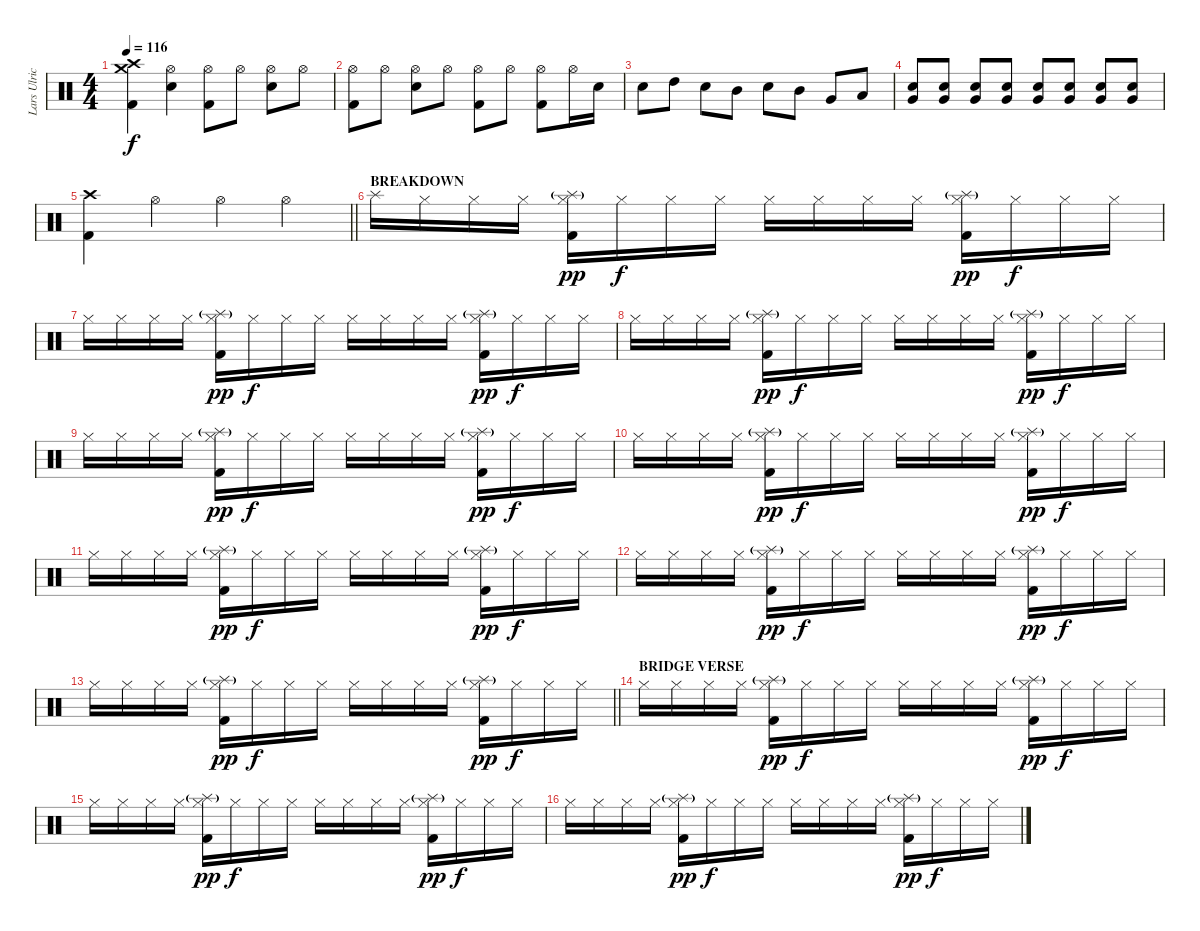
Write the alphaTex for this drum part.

\track ("Lars Ulrich - drums" "Lars Ulric") {instrument percussion}
\staff {score}
\articulation defaults
\ts (4 4)
\tempo 116
\clef neutral
\ks c
("Crash high (hit)" "Crash medium (hit)" "Kick (hit) 2").4{dy f} ("Hi-Hat (open)" "Snare (hit) 2").4 ("Hi-Hat (open)" "Kick (hit) 2").8 "Hi-Hat (open)".8 ("Hi-Hat (open)" "Snare (hit) 2").8 "Hi-Hat (open)".8 |
("Hi-Hat (open)" "Kick (hit) 2").8 "Hi-Hat (open)".8 ("Hi-Hat (open)" "Snare (hit) 2").8 "Hi-Hat (open)".8 ("Hi-Hat (open)" "Kick (hit) 2").8 "Hi-Hat (open)".8 ("Hi-Hat (open)" "Kick (hit) 2").8 "Hi-Hat (open)".16 "Snare (hit) 2".16 |
"Snare (hit) 2".8 "High Tom (hit)".8 "Snare (hit) 2".8 "Mid Tom (hit)".8 "Snare (hit) 2".8 "Mid Tom (hit)".8 "Very Low Tom (hit)".8 "Low Floor Tom (hit)".8 |
("Very Low Tom (hit)" "Snare (hit) 2").8 ("Very Low Tom (hit)" "Snare (hit) 2").8 ("Very Low Tom (hit)" "Snare (hit) 2").8 ("Very Low Tom (hit)" "Snare (hit) 2").8 ("Very Low Tom (hit)" "Snare (hit) 2").8 ("Very Low Tom (hit)" "Snare (hit) 2").8 ("Very Low Tom (hit)" "Snare (hit) 2").8 ("Very Low Tom (hit)" "Snare (hit) 2").8 |
\barLineRight lightlight
("Crash high (hit)" "Kick (hit) 2").4 "Hi-Hat (open)".4 "Hi-Hat (open)".4 "Hi-Hat (open)".4 |
\section ("" "BREAKDOWN")
"Splash (hit)".16 "Hi-Hat (closed)".16 "Hi-Hat (closed)".16 "Hi-Hat (closed)".16 ("Splash (hit)"{g} "Hi-Hat (closed)" "Kick (hit) 2").16{dy pp} "Hi-Hat (closed)".16{dy f} "Hi-Hat (closed)".16 "Hi-Hat (closed)".16 "Hi-Hat (closed)".16 "Hi-Hat (closed)".16 "Hi-Hat (closed)".16 "Hi-Hat (closed)".16 ("Splash (hit)"{g} "Hi-Hat (closed)" "Kick (hit) 2").16{dy pp} "Hi-Hat (closed)".16{dy f} "Hi-Hat (closed)".16 "Hi-Hat (closed)".16 |
"Hi-Hat (closed)".16 "Hi-Hat (closed)".16 "Hi-Hat (closed)".16 "Hi-Hat (closed)".16 ("Splash (hit)"{g} "Hi-Hat (closed)" "Kick (hit) 2").16{dy pp} "Hi-Hat (closed)".16{dy f} "Hi-Hat (closed)".16 "Hi-Hat (closed)".16 "Hi-Hat (closed)".16 "Hi-Hat (closed)".16 "Hi-Hat (closed)".16 "Hi-Hat (closed)".16 ("Splash (hit)"{g} "Hi-Hat (closed)" "Kick (hit) 2").16{dy pp} "Hi-Hat (closed)".16{dy f} "Hi-Hat (closed)".16 "Hi-Hat (closed)".16 |
"Hi-Hat (closed)".16 "Hi-Hat (closed)".16 "Hi-Hat (closed)".16 "Hi-Hat (closed)".16 ("Splash (hit)"{g} "Hi-Hat (closed)" "Kick (hit) 2").16{dy pp} "Hi-Hat (closed)".16{dy f} "Hi-Hat (closed)".16 "Hi-Hat (closed)".16 "Hi-Hat (closed)".16 "Hi-Hat (closed)".16 "Hi-Hat (closed)".16 "Hi-Hat (closed)".16 ("Splash (hit)"{g} "Hi-Hat (closed)" "Kick (hit) 2").16{dy pp} "Hi-Hat (closed)".16{dy f} "Hi-Hat (closed)".16 "Hi-Hat (closed)".16 |
"Hi-Hat (closed)".16 "Hi-Hat (closed)".16 "Hi-Hat (closed)".16 "Hi-Hat (closed)".16 ("Splash (hit)"{g} "Hi-Hat (closed)" "Kick (hit) 2").16{dy pp} "Hi-Hat (closed)".16{dy f} "Hi-Hat (closed)".16 "Hi-Hat (closed)".16 "Hi-Hat (closed)".16 "Hi-Hat (closed)".16 "Hi-Hat (closed)".16 "Hi-Hat (closed)".16 ("Splash (hit)"{g} "Hi-Hat (closed)" "Kick (hit) 2").16{dy pp} "Hi-Hat (closed)".16{dy f} "Hi-Hat (closed)".16 "Hi-Hat (closed)".16 |
"Hi-Hat (closed)".16 "Hi-Hat (closed)".16 "Hi-Hat (closed)".16 "Hi-Hat (closed)".16 ("Splash (hit)"{g} "Hi-Hat (closed)" "Kick (hit) 2").16{dy pp} "Hi-Hat (closed)".16{dy f} "Hi-Hat (closed)".16 "Hi-Hat (closed)".16 "Hi-Hat (closed)".16 "Hi-Hat (closed)".16 "Hi-Hat (closed)".16 "Hi-Hat (closed)".16 ("Splash (hit)"{g} "Hi-Hat (closed)" "Kick (hit) 2").16{dy pp} "Hi-Hat (closed)".16{dy f} "Hi-Hat (closed)".16 "Hi-Hat (closed)".16 |
"Hi-Hat (closed)".16 "Hi-Hat (closed)".16 "Hi-Hat (closed)".16 "Hi-Hat (closed)".16 ("Splash (hit)"{g} "Hi-Hat (closed)" "Kick (hit) 2").16{dy pp} "Hi-Hat (closed)".16{dy f} "Hi-Hat (closed)".16 "Hi-Hat (closed)".16 "Hi-Hat (closed)".16 "Hi-Hat (closed)".16 "Hi-Hat (closed)".16 "Hi-Hat (closed)".16 ("Splash (hit)"{g} "Hi-Hat (closed)" "Kick (hit) 2").16{dy pp} "Hi-Hat (closed)".16{dy f} "Hi-Hat (closed)".16 "Hi-Hat (closed)".16 |
"Hi-Hat (closed)".16 "Hi-Hat (closed)".16 "Hi-Hat (closed)".16 "Hi-Hat (closed)".16 ("Splash (hit)"{g} "Hi-Hat (closed)" "Kick (hit) 2").16{dy pp} "Hi-Hat (closed)".16{dy f} "Hi-Hat (closed)".16 "Hi-Hat (closed)".16 "Hi-Hat (closed)".16 "Hi-Hat (closed)".16 "Hi-Hat (closed)".16 "Hi-Hat (closed)".16 ("Splash (hit)"{g} "Hi-Hat (closed)" "Kick (hit) 2").16{dy pp} "Hi-Hat (closed)".16{dy f} "Hi-Hat (closed)".16 "Hi-Hat (closed)".16 |
\barLineRight lightlight "Hi-Hat (closed)".16 "Hi-Hat (closed)".16 "Hi-Hat (closed)".16 "Hi-Hat (closed)".16
("Splash (hit)"{g} "Hi-Hat (closed)" "Kick (hit) 2").16{dy pp} "Hi-Hat (closed)".16{dy f} "Hi-Hat (closed)".16 "Hi-Hat (closed)".16 "Hi-Hat (closed)".16 "Hi-Hat (closed)".16 "Hi-Hat (closed)".16 "Hi-Hat (closed)".16 ("Splash (hit)"{g} "Hi-Hat (closed)" "Kick (hit) 2").16{dy pp} "Hi-Hat (closed)".16{dy f} "Hi-Hat (closed)".16 "Hi-Hat (closed)".16 |
\section ("" "BRIDGE VERSE")
"Hi-Hat (closed)".16 "Hi-Hat (closed)".16 "Hi-Hat (closed)".16 "Hi-Hat (closed)".16 ("Splash (hit)"{g} "Hi-Hat (closed)" "Kick (hit) 2").16{dy pp} "Hi-Hat (closed)".16{dy f} "Hi-Hat (closed)".16 "Hi-Hat (closed)".16 "Hi-Hat (closed)".16 "Hi-Hat (closed)".16 "Hi-Hat (closed)".16 "Hi-Hat (closed)".16 ("Splash (hit)"{g} "Hi-Hat (closed)" "Kick (hit) 2").16{dy pp} "Hi-Hat (closed)".16{dy f} "Hi-Hat (closed)".16 "Hi-Hat (closed)".16 |
"Hi-Hat (closed)".16 "Hi-Hat (closed)".16 "Hi-Hat (closed)".16 "Hi-Hat (closed)".16 ("Splash (hit)"{g} "Hi-Hat (closed)" "Kick (hit) 2").16{dy pp} "Hi-Hat (closed)".16{dy f} "Hi-Hat (closed)".16 "Hi-Hat (closed)".16 "Hi-Hat (closed)".16 "Hi-Hat (closed)".16 "Hi-Hat (closed)".16 "Hi-Hat (closed)".16 ("Splash (hit)"{g} "Hi-Hat (closed)" "Kick (hit) 2").16{dy pp} "Hi-Hat (closed)".16{dy f} "Hi-Hat (closed)".16 "Hi-Hat (closed)".16 |
"Hi-Hat (closed)".16 "Hi-Hat (closed)".16 "Hi-Hat (closed)".16 "Hi-Hat (closed)".16 ("Splash (hit)"{g} "Hi-Hat (closed)" "Kick (hit) 2").16{dy pp} "Hi-Hat (closed)".16{dy f} "Hi-Hat (closed)".16 "Hi-Hat (closed)".16 "Hi-Hat (closed)".16 "Hi-Hat (closed)".16 "Hi-Hat (closed)".16 "Hi-Hat (closed)".16 ("Splash (hit)"{g} "Hi-Hat (closed)" "Kick (hit) 2").16{dy pp} "Hi-Hat (closed)".16{dy f} "Hi-Hat (closed)".16 "Hi-Hat (closed)".16
